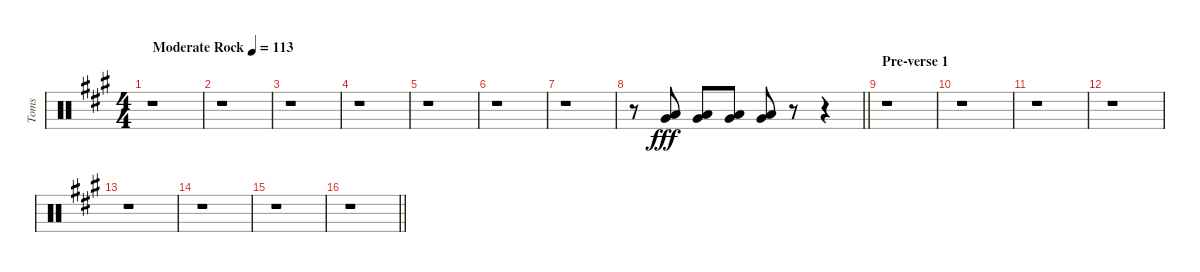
\track ("Toms" "Toms") {instrument percussion}
\staff {score}
\articulation defaults
\ts (4 4)
\tempo (113 "Moderate Rock")
\clef neutral
\ks f#minor
r.1{dy fff} |
r.1 |
r.1 |
r.1 |
r.1 |
r.1 |
r.1 |
\barLineRight lightlight
r.8{volume 16} ("Very Low Tom (hit)" "Low Tom (hit)").8{beam Up} ("Very Low Tom (hit)" "Low Tom (hit)").8{beam Up} ("Very Low Tom (hit)" "Low Tom (hit)").8{beam Up} ("Low Tom (hit)" "Very Low Tom (hit)").8{beam Up} r.8{volume 0} r.4 |
\section ("" "Pre-verse 1")
r.1 |
r.1 |
r.1 |
r.1 |
r.1 |
r.1 |
r.1 |
\barLineRight lightlight
r.1
